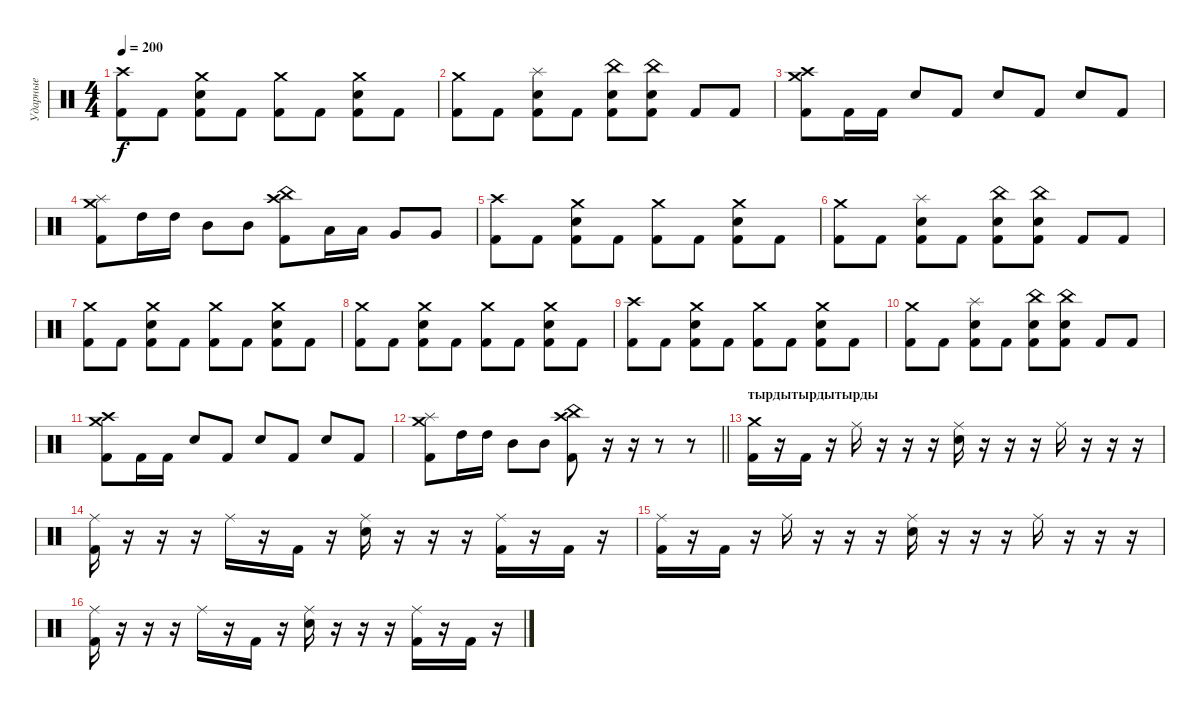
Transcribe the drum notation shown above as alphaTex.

\track ("Ударные" "Ударные") {instrument percussion}
\staff {score}
\articulation defaults
\ts (4 4)
\tempo 200
\clef neutral
\ks c
("Kick (hit) 2" "Crash high (hit)").8{dy f} "Kick (hit) 2".8 ("Kick (hit) 2" "Electric Snare (hit)" "Crash medium (hit)").8 "Kick (hit) 2".8 ("Kick (hit) 2" "Crash medium (hit)").8 "Kick (hit) 2".8 ("Kick (hit) 2" "Electric Snare (hit)" "Crash medium (hit)").8 "Kick (hit) 2".8 |
("Kick (hit) 2" "Crash medium (hit)").8 "Kick (hit) 2".8 ("Kick (hit) 2" "Electric Snare (hit)" "Splash (hit)").8 "Kick (hit) 2".8 ("Kick (hit) 2" "Electric Snare (hit)" "China (hit)").8 ("Kick (hit) 2" "Electric Snare (hit)" "China (hit)").8 "Kick (hit) 2".8 "Kick (hit) 2".8 |
("Kick (hit) 2" "Crash high (hit)" "Crash medium (hit)").8 "Kick (hit) 2".16 "Kick (hit) 2".16 "Electric Snare (hit)".8 "Kick (hit) 2".8 "Electric Snare (hit)".8 "Kick (hit) 2".8 "Electric Snare (hit)".8 "Kick (hit) 2".8 |
("Kick (hit) 2" "Splash (hit)" "Crash medium (hit)").8 "High Tom (hit)".16 "High Tom (hit)".16 "Mid Tom (hit)".8 "Mid Tom (hit)".8 ("Kick (hit) 2" "China (hit)" "Crash high (hit)").8 "Low Tom (hit)".16 "Low Tom (hit)".16 "Very Low Tom (hit)".8 "Very Low Tom (hit)".8 |
("Kick (hit) 2" "Crash high (hit)").8 "Kick (hit) 2".8 ("Kick (hit) 2" "Electric Snare (hit)" "Crash medium (hit)").8 "Kick (hit) 2".8 ("Kick (hit) 2" "Crash medium (hit)").8 "Kick (hit) 2".8 ("Kick (hit) 2" "Electric Snare (hit)" "Crash medium (hit)").8 "Kick (hit) 2".8 |
("Kick (hit) 2" "Crash medium (hit)").8 "Kick (hit) 2".8 ("Kick (hit) 2" "Electric Snare (hit)" "Splash (hit)").8 "Kick (hit) 2".8 ("Kick (hit) 2" "Electric Snare (hit)" "China (hit)").8 ("Kick (hit) 2" "Electric Snare (hit)" "China (hit)").8 "Kick (hit) 2".8 "Kick (hit) 2".8 |
("Kick (hit) 2" "Crash medium (hit)").8 "Kick (hit) 2".8 ("Kick (hit) 2" "Electric Snare (hit)" "Crash medium (hit)").8 "Kick (hit) 2".8 ("Kick (hit) 2" "Crash medium (hit)").8 "Kick (hit) 2".8 ("Kick (hit) 2" "Electric Snare (hit)" "Crash medium (hit)").8 "Kick (hit) 2".8 |
("Kick (hit) 2" "Crash medium (hit)").8 "Kick (hit) 2".8 ("Kick (hit) 2" "Electric Snare (hit)" "Crash medium (hit)").8 "Kick (hit) 2".8 ("Kick (hit) 2" "Crash medium (hit)").8 "Kick (hit) 2".8 ("Kick (hit) 2" "Electric Snare (hit)" "Crash medium (hit)").8 "Kick (hit) 2".8 |
("Kick (hit) 2" "Crash high (hit)").8 "Kick (hit) 2".8 ("Kick (hit) 2" "Electric Snare (hit)" "Crash medium (hit)").8 "Kick (hit) 2".8 ("Kick (hit) 2" "Crash medium (hit)").8 "Kick (hit) 2".8 ("Kick (hit) 2" "Electric Snare (hit)" "Crash medium (hit)").8 "Kick (hit) 2".8 |
("Kick (hit) 2" "Crash medium (hit)").8 "Kick (hit) 2".8 ("Kick (hit) 2" "Electric Snare (hit)" "Splash (hit)").8 "Kick (hit) 2".8 ("Kick (hit) 2" "Electric Snare (hit)" "China (hit)").8 ("Kick (hit) 2" "Electric Snare (hit)" "China (hit)").8 "Kick (hit) 2".8 "Kick (hit) 2".8 |
("Kick (hit) 2" "Crash high (hit)" "Crash medium (hit)").8 "Kick (hit) 2".16 "Kick (hit) 2".16 "Electric Snare (hit)".8 "Kick (hit) 2".8 "Electric Snare (hit)".8 "Kick (hit) 2".8 "Electric Snare (hit)".8 "Kick (hit) 2".8 |
\barLineRight lightlight
("Kick (hit) 2" "Splash (hit)" "Crash medium (hit)").8 "High Tom (hit)".16 "High Tom (hit)".16 "Mid Tom (hit)".8 "Mid Tom (hit)".8 ("Kick (hit) 2" "China (hit)" "Crash high (hit)").8 r.16 r.16 r.8 r.8 |
\section ("" "тырдытырдытырды")
("Kick (hit) 2" "Crash medium (hit)").16 r.16 "Kick (hit) 2".16 r.16 "Ride (middle)".16 r.16 r.16 r.16 ("Electric Snare (hit)" "Ride (middle)").16 r.16 r.16 r.16 "Ride (middle)".16 r.16 r.16 r.16 |
("Kick (hit) 2" "Ride (middle)").16 r.16 r.16 r.16 "Ride (middle)".16 r.16 "Kick (hit) 2".16 r.16 ("Electric Snare (hit)" "Ride (middle)").16 r.16 r.16 r.16 ("Kick (hit) 2" "Ride (middle)").16 r.16 "Kick (hit) 2".16 r.16 |
("Kick (hit) 2" "Ride (middle)").16 r.16 "Kick (hit) 2".16 r.16 "Ride (middle)".16 r.16 r.16 r.16 ("Electric Snare (hit)" "Ride (middle)").16 r.16 r.16 r.16 "Ride (middle)".16 r.16 r.16 r.16 |
("Kick (hit) 2" "Ride (middle)").16 r.16 r.16 r.16 "Ride (middle)".16 r.16 "Kick (hit) 2".16 r.16 ("Electric Snare (hit)" "Ride (middle)").16 r.16 r.16 r.16 ("Kick (hit) 2" "Ride (middle)").16 r.16 "Kick (hit) 2".16 r.16
